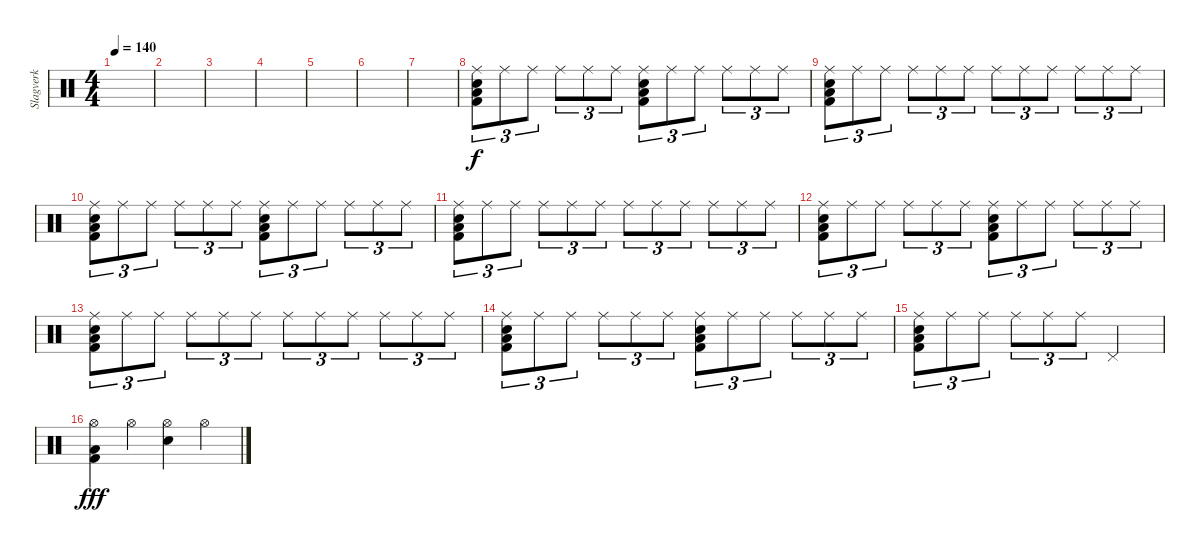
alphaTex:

\track ("Slagverk" "Slagverk") {instrument percussion}
\staff {score}
\articulation defaults
\ts (4 4)
\tempo 140
\clef neutral
\ks c
|
|
|
|
|
|
|
("Ride (middle)" "Low Floor Tom (hit)" "Kick (hit) 2" "Snare (hit) 2").8{tu (3 2)} "Ride (middle)".8{tu (3 2)} "Ride (middle)".8{tu (3 2)} "Ride (middle)".8{tu (3 2)} "Ride (middle)".8{tu (3 2)} "Ride (middle)".8{tu (3 2)} ("Ride (middle)" "Low Floor Tom (hit)" "Kick (hit) 2" "Snare (hit) 2").8{tu (3 2)} "Ride (middle)".8{tu (3 2)} "Ride (middle)".8{tu (3 2)} "Ride (middle)".8{tu (3 2)} "Ride (middle)".8{tu (3 2)} "Ride (middle)".8{tu (3 2)} |
("Ride (middle)" "Low Floor Tom (hit)" "Kick (hit) 2" "Snare (hit) 2").8{tu (3 2)} "Ride (middle)".8{tu (3 2)} "Ride (middle)".8{tu (3 2)} "Ride (middle)".8{tu (3 2)} "Ride (middle)".8{tu (3 2)} "Ride (middle)".8{tu (3 2)} "Ride (middle)".8{tu (3 2)} "Ride (middle)".8{tu (3 2)} "Ride (middle)".8{tu (3 2)} "Ride (middle)".8{tu (3 2)} "Ride (middle)".8{tu (3 2)} "Ride (middle)".8{tu (3 2)} |
("Ride (middle)" "Low Floor Tom (hit)" "Kick (hit) 2" "Snare (hit) 2").8{tu (3 2)} "Ride (middle)".8{tu (3 2)} "Ride (middle)".8{tu (3 2)} "Ride (middle)".8{tu (3 2)} "Ride (middle)".8{tu (3 2)} "Ride (middle)".8{tu (3 2)} ("Ride (middle)" "Low Floor Tom (hit)" "Kick (hit) 2" "Snare (hit) 2").8{tu (3 2)} "Ride (middle)".8{tu (3 2)} "Ride (middle)".8{tu (3 2)} "Ride (middle)".8{tu (3 2)} "Ride (middle)".8{tu (3 2)} "Ride (middle)".8{tu (3 2)} |
("Ride (middle)" "Low Floor Tom (hit)" "Kick (hit) 2" "Snare (hit) 2").8{tu (3 2)} "Ride (middle)".8{tu (3 2)} "Ride (middle)".8{tu (3 2)} "Ride (middle)".8{tu (3 2)} "Ride (middle)".8{tu (3 2)} "Ride (middle)".8{tu (3 2)} "Ride (middle)".8{tu (3 2)} "Ride (middle)".8{tu (3 2)} "Ride (middle)".8{tu (3 2)} "Ride (middle)".8{tu (3 2)} "Ride (middle)".8{tu (3 2)} "Ride (middle)".8{tu (3 2)} |
("Ride (middle)" "Low Floor Tom (hit)" "Kick (hit) 2" "Snare (hit) 2").8{tu (3 2)} "Ride (middle)".8{tu (3 2)} "Ride (middle)".8{tu (3 2)} "Ride (middle)".8{tu (3 2)} "Ride (middle)".8{tu (3 2)} "Ride (middle)".8{tu (3 2)} ("Ride (middle)" "Low Floor Tom (hit)" "Kick (hit) 2" "Snare (hit) 2").8{tu (3 2)} "Ride (middle)".8{tu (3 2)} "Ride (middle)".8{tu (3 2)} "Ride (middle)".8{tu (3 2)} "Ride (middle)".8{tu (3 2)} "Ride (middle)".8{tu (3 2)} |
("Ride (middle)" "Low Floor Tom (hit)" "Kick (hit) 2" "Snare (hit) 2").8{tu (3 2)} "Ride (middle)".8{tu (3 2)} "Ride (middle)".8{tu (3 2)} "Ride (middle)".8{tu (3 2)} "Ride (middle)".8{tu (3 2)} "Ride (middle)".8{tu (3 2)} "Ride (middle)".8{tu (3 2)} "Ride (middle)".8{tu (3 2)} "Ride (middle)".8{tu (3 2)} "Ride (middle)".8{tu (3 2)} "Ride (middle)".8{tu (3 2)} "Ride (middle)".8{tu (3 2)} |
("Ride (middle)" "Low Floor Tom (hit)" "Kick (hit) 2" "Snare (hit) 2").8{tu (3 2)} "Ride (middle)".8{tu (3 2)} "Ride (middle)".8{tu (3 2)} "Ride (middle)".8{tu (3 2)} "Ride (middle)".8{tu (3 2)} "Ride (middle)".8{tu (3 2)} ("Ride (middle)" "Low Floor Tom (hit)" "Kick (hit) 2" "Snare (hit) 2").8{tu (3 2)} "Ride (middle)".8{tu (3 2)} "Ride (middle)".8{tu (3 2)} "Ride (middle)".8{tu (3 2)} "Ride (middle)".8{tu (3 2)} "Ride (middle)".8{tu (3 2)} |
("Ride (middle)" "Low Floor Tom (hit)" "Kick (hit) 2" "Snare (hit) 2").8{tu (3 2)} "Ride (middle)".8{tu (3 2)} "Ride (middle)".8{tu (3 2)} "Ride (middle)".8{tu (3 2)} "Ride (middle)".8{tu (3 2)} "Ride (middle)".8{tu (3 2)} "Pedal Hi-Hat (hit)".2{dy f} |
("Hi-Hat (open)" "Low Floor Tom (hit)" "Kick (hit) 2").4{dy fff} "Hi-Hat (open)".4 ("Hi-Hat (open)" "Snare (hit) 2").4 "Hi-Hat (open)".4
